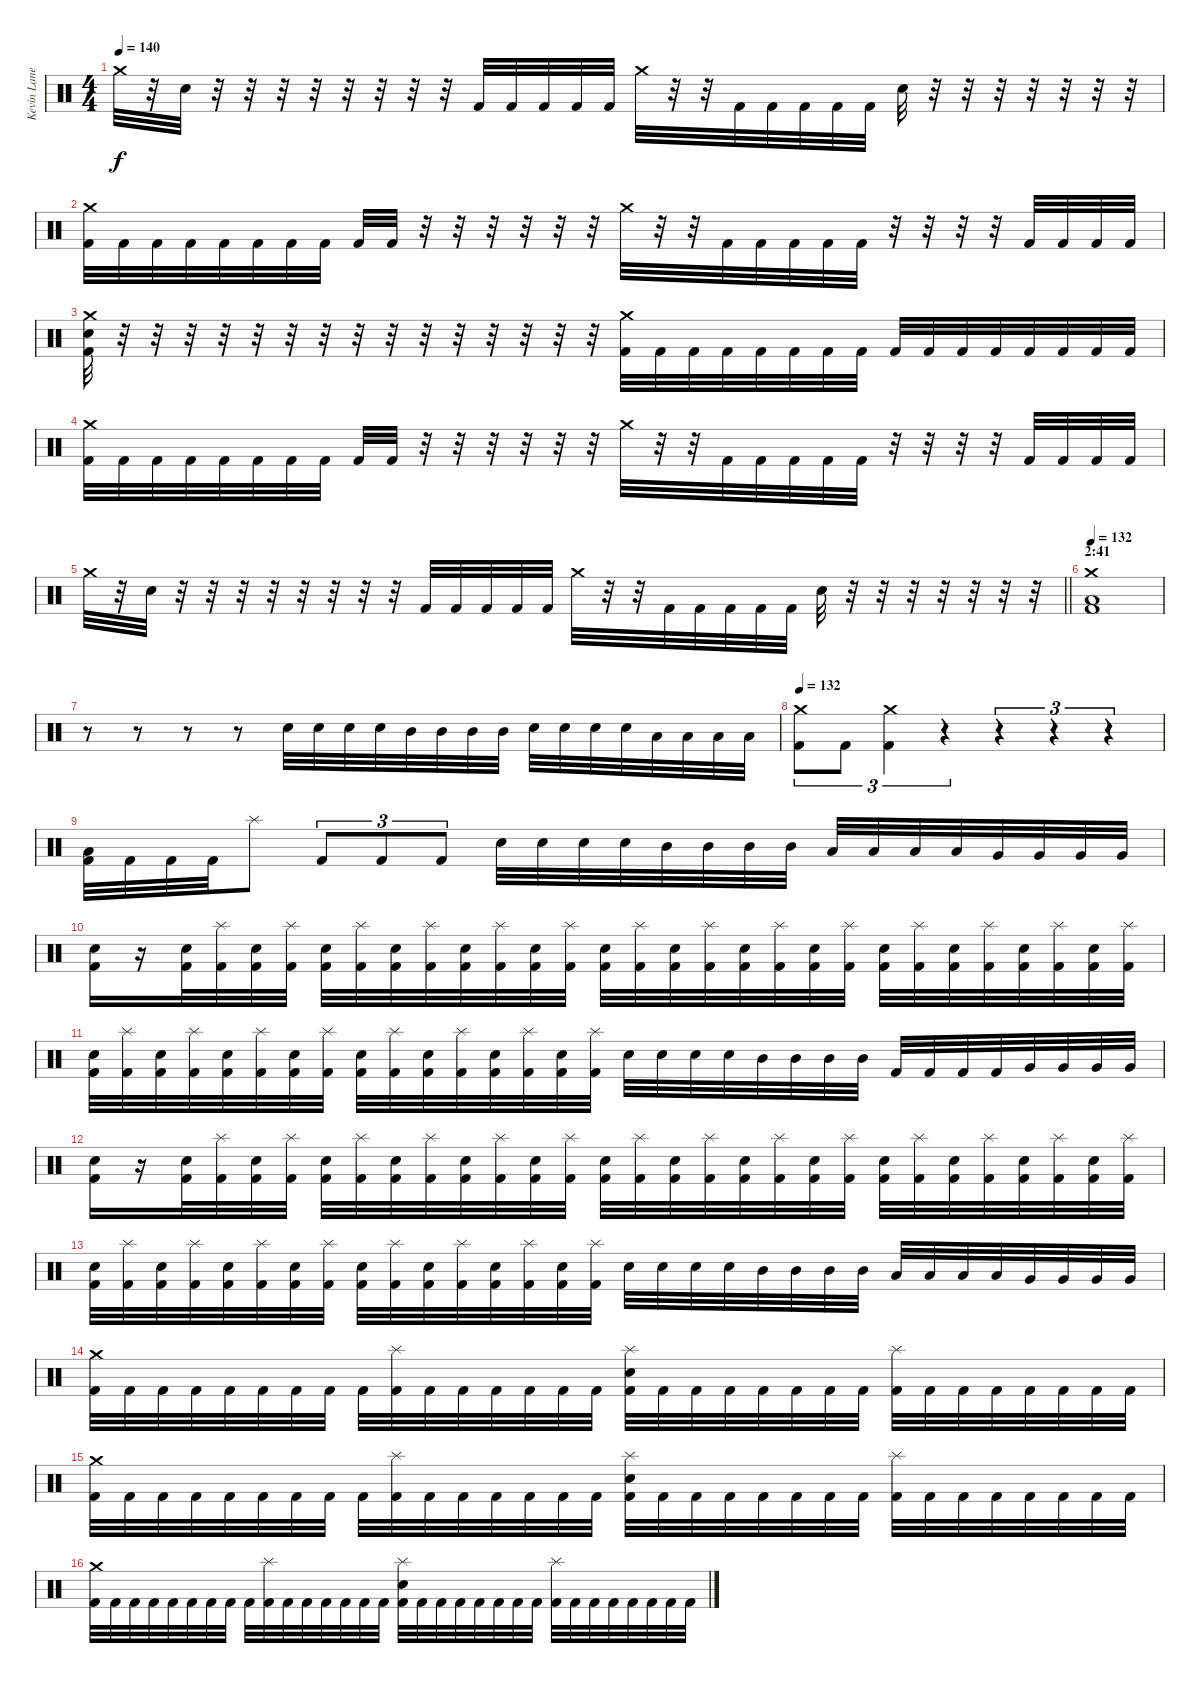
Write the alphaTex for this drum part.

\track ("Kevin Lane" "Kevin Lane") {instrument percussion}
\staff {score}
\articulation defaults
\ts (4 4)
\tempo 140
\clef neutral
\ks c "Crash medium (hit)".32{dy f}
r.32 "Electric Snare (hit)".32 r.32 r.32 r.32 r.32 r.32 r.32 r.32 r.32 "Kick (hit) 2".32 "Kick (hit) 2".32 "Kick (hit) 2".32 "Kick (hit) 2".32 "Kick (hit) 2".32 "Crash medium (hit)".32 r.32 r.32 "Kick (hit) 2".32 "Kick (hit) 2".32 "Kick (hit) 2".32 "Kick (hit) 2".32 "Kick (hit) 2".32 "Electric Snare (hit)".32 r.32 r.32 r.32 r.32 r.32 r.32 r.32 |
("Crash medium (hit)" "Kick (hit) 2").32 "Kick (hit) 2".32 "Kick (hit) 2".32 "Kick (hit) 2".32 "Kick (hit) 2".32 "Kick (hit) 2".32 "Kick (hit) 2".32 "Kick (hit) 2".32 "Kick (hit) 2".32 "Kick (hit) 2".32 r.32 r.32 r.32 r.32 r.32 r.32 "Crash medium (hit)".32 r.32 r.32 "Kick (hit) 2".32 "Kick (hit) 2".32 "Kick (hit) 2".32 "Kick (hit) 2".32 "Kick (hit) 2".32 r.32 r.32 r.32 r.32 "Kick (hit) 2".32 "Kick (hit) 2".32 "Kick (hit) 2".32 "Kick (hit) 2".32 |
("Crash medium (hit)" "Electric Snare (hit)" "Kick (hit) 2").32 r.32 r.32 r.32 r.32 r.32 r.32 r.32 r.32 r.32 r.32 r.32 r.32 r.32 r.32 r.32 ("Crash medium (hit)" "Kick (hit) 2").32 "Kick (hit) 2".32 "Kick (hit) 2".32 "Kick (hit) 2".32 "Kick (hit) 2".32 "Kick (hit) 2".32 "Kick (hit) 2".32 "Kick (hit) 2".32 "Kick (hit) 2".32 "Kick (hit) 2".32 "Kick (hit) 2".32 "Kick (hit) 2".32 "Kick (hit) 2".32 "Kick (hit) 2".32 "Kick (hit) 2".32 "Kick (hit) 2".32 |
("Crash medium (hit)" "Kick (hit) 2").32 "Kick (hit) 2".32 "Kick (hit) 2".32 "Kick (hit) 2".32 "Kick (hit) 2".32 "Kick (hit) 2".32 "Kick (hit) 2".32 "Kick (hit) 2".32 "Kick (hit) 2".32 "Kick (hit) 2".32 r.32 r.32 r.32 r.32 r.32 r.32 "Crash medium (hit)".32 r.32 r.32 "Kick (hit) 2".32 "Kick (hit) 2".32 "Kick (hit) 2".32 "Kick (hit) 2".32 "Kick (hit) 2".32 r.32 r.32 r.32 r.32 "Kick (hit) 2".32 "Kick (hit) 2".32 "Kick (hit) 2".32 "Kick (hit) 2".32 |
\barLineRight lightlight "Crash medium (hit)".32
r.32 "Electric Snare (hit)".32 r.32 r.32 r.32 r.32 r.32 r.32 r.32 r.32 "Kick (hit) 2".32 "Kick (hit) 2".32 "Kick (hit) 2".32 "Kick (hit) 2".32 "Kick (hit) 2".32 "Crash medium (hit)".32 r.32 r.32 "Kick (hit) 2".32 "Kick (hit) 2".32 "Kick (hit) 2".32 "Kick (hit) 2".32 "Kick (hit) 2".32 "Electric Snare (hit)".32 r.32 r.32 r.32 r.32 r.32 r.32 r.32 |
\section ("" "2:41")
\tempo 132
("Crash medium (hit)" "Low Floor Tom (hit)" "Kick (hit) 2").1 |
r.8 r.8 r.8 r.8 "Electric Snare (hit)".32 "Electric Snare (hit)".32 "Electric Snare (hit)".32 "Electric Snare (hit)".32 "Mid Tom (hit)".32 "Mid Tom (hit)".32 "Mid Tom (hit)".32 "Mid Tom (hit)".32 "Electric Snare (hit)".32 "Electric Snare (hit)".32 "Electric Snare (hit)".32 "Electric Snare (hit)".32 "Low Tom (hit)".32 "Low Tom (hit)".32 "Low Tom (hit)".32 "Low Tom (hit)".32 |
\tempo 132
("Crash medium (hit)" "Kick (hit) 2").8{tu (3 2)} "Kick (hit) 2".8{tu (3 2)} ("Crash medium (hit)" "Kick (hit) 2").4{tu (3 2)} r.4{tu (3 2)} r.4{tu (3 2)} r.4{tu (3 2)} r.4{tu (3 2)} |
("Low Floor Tom (hit)" "Kick (hit) 2").32 "Kick (hit) 2".32 "Kick (hit) 2".32 "Kick (hit) 2".32 "Splash (hit)".8 "Kick (hit) 2".8{tu (3 2)} "Kick (hit) 2".8{tu (3 2)} "Kick (hit) 2".8{tu (3 2)} "Electric Snare (hit)".32 "Electric Snare (hit)".32 "Electric Snare (hit)".32 "Electric Snare (hit)".32 "Mid Tom (hit)".32 "Mid Tom (hit)".32 "Mid Tom (hit)".32 "Mid Tom (hit)".32 "Low Tom (hit)".32 "Low Tom (hit)".32 "Low Tom (hit)".32 "Low Tom (hit)".32 "Very Low Tom (hit)".32 "Very Low Tom (hit)".32 "Very Low Tom (hit)".32 "Very Low Tom (hit)".32 |
("Electric Snare (hit)" "Kick (hit) 2").16 r.16 ("Electric Snare (hit)" "Kick (hit) 2").32 ("Splash (hit)" "Kick (hit) 2").32 ("Electric Snare (hit)" "Kick (hit) 2").32 ("Splash (hit)" "Kick (hit) 2").32 ("Electric Snare (hit)" "Kick (hit) 2").32 ("Splash (hit)" "Kick (hit) 2").32 ("Electric Snare (hit)" "Kick (hit) 2").32 ("Splash (hit)" "Kick (hit) 2").32 ("Electric Snare (hit)" "Kick (hit) 2").32 ("Splash (hit)" "Kick (hit) 2").32 ("Electric Snare (hit)" "Kick (hit) 2").32 ("Splash (hit)" "Kick (hit) 2").32 ("Electric Snare (hit)" "Kick (hit) 2").32 ("Splash (hit)" "Kick (hit) 2").32 ("Electric Snare (hit)" "Kick (hit) 2").32 ("Splash (hit)" "Kick (hit) 2").32 ("Electric Snare (hit)" "Kick (hit) 2").32 ("Splash (hit)" "Kick (hit) 2").32 ("Electric Snare (hit)" "Kick (hit) 2").32 ("Splash (hit)" "Kick (hit) 2").32 ("Electric Snare (hit)" "Kick (hit) 2").32 ("Splash (hit)" "Kick (hit) 2").32 ("Electric Snare (hit)" "Kick (hit) 2").32 ("Splash (hit)" "Kick (hit) 2").32 ("Electric Snare (hit)" "Kick (hit) 2").32 ("Splash (hit)" "Kick (hit) 2").32 ("Electric Snare (hit)" "Kick (hit) 2").32 ("Splash (hit)" "Kick (hit) 2").32 |
("Electric Snare (hit)" "Kick (hit) 2").32 ("Splash (hit)" "Kick (hit) 2").32 ("Electric Snare (hit)" "Kick (hit) 2").32 ("Splash (hit)" "Kick (hit) 2").32 ("Electric Snare (hit)" "Kick (hit) 2").32 ("Splash (hit)" "Kick (hit) 2").32 ("Electric Snare (hit)" "Kick (hit) 2").32 ("Splash (hit)" "Kick (hit) 2").32 ("Electric Snare (hit)" "Kick (hit) 2").32 ("Splash (hit)" "Kick (hit) 2").32 ("Electric Snare (hit)" "Kick (hit) 2").32 ("Splash (hit)" "Kick (hit) 2").32 ("Electric Snare (hit)" "Kick (hit) 2").32 ("Splash (hit)" "Kick (hit) 2").32 ("Electric Snare (hit)" "Kick (hit) 2").32 ("Splash (hit)" "Kick (hit) 2").32 "Electric Snare (hit)".32 "Electric Snare (hit)".32 "Electric Snare (hit)".32 "Electric Snare (hit)".32 "Mid Tom (hit)".32 "Mid Tom (hit)".32 "Mid Tom (hit)".32 "Mid Tom (hit)".32 "Kick (hit) 2".32 "Kick (hit) 2".32 "Kick (hit) 2".32 "Kick (hit) 2".32 "Very Low Tom (hit)".32 "Very Low Tom (hit)".32 "Very Low Tom (hit)".32 "Very Low Tom (hit)".32 |
("Electric Snare (hit)" "Kick (hit) 2").16 r.16 ("Electric Snare (hit)" "Kick (hit) 2").32 ("Splash (hit)" "Kick (hit) 2").32 ("Electric Snare (hit)" "Kick (hit) 2").32 ("Splash (hit)" "Kick (hit) 2").32 ("Electric Snare (hit)" "Kick (hit) 2").32 ("Splash (hit)" "Kick (hit) 2").32 ("Electric Snare (hit)" "Kick (hit) 2").32 ("Splash (hit)" "Kick (hit) 2").32 ("Electric Snare (hit)" "Kick (hit) 2").32 ("Splash (hit)" "Kick (hit) 2").32 ("Electric Snare (hit)" "Kick (hit) 2").32 ("Splash (hit)" "Kick (hit) 2").32 ("Electric Snare (hit)" "Kick (hit) 2").32 ("Splash (hit)" "Kick (hit) 2").32 ("Electric Snare (hit)" "Kick (hit) 2").32 ("Splash (hit)" "Kick (hit) 2").32 ("Electric Snare (hit)" "Kick (hit) 2").32 ("Splash (hit)" "Kick (hit) 2").32 ("Electric Snare (hit)" "Kick (hit) 2").32 ("Splash (hit)" "Kick (hit) 2").32 ("Electric Snare (hit)" "Kick (hit) 2").32 ("Splash (hit)" "Kick (hit) 2").32 ("Electric Snare (hit)" "Kick (hit) 2").32 ("Splash (hit)" "Kick (hit) 2").32 ("Electric Snare (hit)" "Kick (hit) 2").32 ("Splash (hit)" "Kick (hit) 2").32 ("Electric Snare (hit)" "Kick (hit) 2").32 ("Splash (hit)" "Kick (hit) 2").32 |
("Electric Snare (hit)" "Kick (hit) 2").32 ("Splash (hit)" "Kick (hit) 2").32 ("Electric Snare (hit)" "Kick (hit) 2").32 ("Splash (hit)" "Kick (hit) 2").32 ("Electric Snare (hit)" "Kick (hit) 2").32 ("Splash (hit)" "Kick (hit) 2").32 ("Electric Snare (hit)" "Kick (hit) 2").32 ("Splash (hit)" "Kick (hit) 2").32 ("Electric Snare (hit)" "Kick (hit) 2").32 ("Splash (hit)" "Kick (hit) 2").32 ("Electric Snare (hit)" "Kick (hit) 2").32 ("Splash (hit)" "Kick (hit) 2").32 ("Electric Snare (hit)" "Kick (hit) 2").32 ("Splash (hit)" "Kick (hit) 2").32 ("Electric Snare (hit)" "Kick (hit) 2").32 ("Splash (hit)" "Kick (hit) 2").32 "Electric Snare (hit)".32 "Electric Snare (hit)".32 "Electric Snare (hit)".32 "Electric Snare (hit)".32 "Mid Tom (hit)".32 "Mid Tom (hit)".32 "Mid Tom (hit)".32 "Mid Tom (hit)".32 "Low Tom (hit)".32 "Low Tom (hit)".32 "Low Tom (hit)".32 "Low Tom (hit)".32 "Very Low Tom (hit)".32 "Very Low Tom (hit)".32 "Very Low Tom (hit)".32 "Very Low Tom (hit)".32 |
("Crash medium (hit)" "Kick (hit) 2").32 "Kick (hit) 2".32 "Kick (hit) 2".32 "Kick (hit) 2".32 "Kick (hit) 2".32 "Kick (hit) 2".32 "Kick (hit) 2".32 "Kick (hit) 2".32 "Kick (hit) 2".32 ("Splash (hit)" "Kick (hit) 2").32 "Kick (hit) 2".32 "Kick (hit) 2".32 "Kick (hit) 2".32 "Kick (hit) 2".32 "Kick (hit) 2".32 "Kick (hit) 2".32 ("Splash (hit)" "Electric Snare (hit)" "Kick (hit) 2").32 "Kick (hit) 2".32 "Kick (hit) 2".32 "Kick (hit) 2".32 "Kick (hit) 2".32 "Kick (hit) 2".32 "Kick (hit) 2".32 "Kick (hit) 2".32 ("Splash (hit)" "Kick (hit) 2").32 "Kick (hit) 2".32 "Kick (hit) 2".32 "Kick (hit) 2".32 "Kick (hit) 2".32 "Kick (hit) 2".32 "Kick (hit) 2".32 "Kick (hit) 2".32 |
("Crash medium (hit)" "Kick (hit) 2").32 "Kick (hit) 2".32 "Kick (hit) 2".32 "Kick (hit) 2".32 "Kick (hit) 2".32 "Kick (hit) 2".32 "Kick (hit) 2".32 "Kick (hit) 2".32 "Kick (hit) 2".32 ("Splash (hit)" "Kick (hit) 2").32 "Kick (hit) 2".32 "Kick (hit) 2".32 "Kick (hit) 2".32 "Kick (hit) 2".32 "Kick (hit) 2".32 "Kick (hit) 2".32 ("Splash (hit)" "Electric Snare (hit)" "Kick (hit) 2").32 "Kick (hit) 2".32 "Kick (hit) 2".32 "Kick (hit) 2".32 "Kick (hit) 2".32 "Kick (hit) 2".32 "Kick (hit) 2".32 "Kick (hit) 2".32 ("Splash (hit)" "Kick (hit) 2").32 "Kick (hit) 2".32 "Kick (hit) 2".32 "Kick (hit) 2".32 "Kick (hit) 2".32 "Kick (hit) 2".32 "Kick (hit) 2".32 "Kick (hit) 2".32 |
("Crash medium (hit)" "Kick (hit) 2").32 "Kick (hit) 2".32 "Kick (hit) 2".32 "Kick (hit) 2".32 "Kick (hit) 2".32 "Kick (hit) 2".32 "Kick (hit) 2".32 "Kick (hit) 2".32 "Kick (hit) 2".32 ("Splash (hit)" "Kick (hit) 2").32 "Kick (hit) 2".32 "Kick (hit) 2".32 "Kick (hit) 2".32 "Kick (hit) 2".32 "Kick (hit) 2".32 "Kick (hit) 2".32 ("Splash (hit)" "Electric Snare (hit)" "Kick (hit) 2").32 "Kick (hit) 2".32 "Kick (hit) 2".32 "Kick (hit) 2".32 "Kick (hit) 2".32 "Kick (hit) 2".32 "Kick (hit) 2".32 "Kick (hit) 2".32 ("Splash (hit)" "Kick (hit) 2").32 "Kick (hit) 2".32 "Kick (hit) 2".32 "Kick (hit) 2".32 "Kick (hit) 2".32 "Kick (hit) 2".32 "Kick (hit) 2".32 "Kick (hit) 2".32
